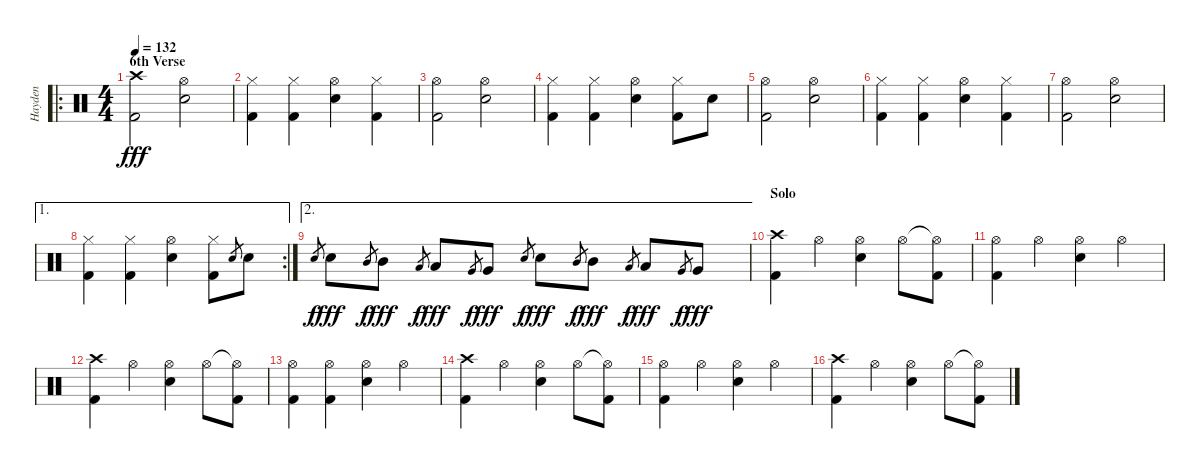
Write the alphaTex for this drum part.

\track ("Hayden" "Hayden") {instrument percussion}
\staff {score}
\articulation defaults
\ro
\ts (4 4)
\section ("" "6th Verse")
\tempo 132
\clef neutral
\ks c
("Crash high (hit)" "Kick (hit) 2").2{dy fff} ("Hi-Hat (open)" "Electric Snare (hit)").2 |
("Kick (hit) 2" "Hi-Hat (closed)").4 ("Kick (hit) 2" "Hi-Hat (closed)").4 ("Hi-Hat (open)" "Electric Snare (hit)").4 ("Hi-Hat (closed)" "Kick (hit) 2").4 |
("Hi-Hat (open)" "Kick (hit) 2").2 ("Hi-Hat (open)" "Electric Snare (hit)").2 |
("Kick (hit) 2" "Hi-Hat (closed)").4 ("Kick (hit) 2" "Hi-Hat (closed)").4 ("Hi-Hat (open)" "Electric Snare (hit)").4 ("Hi-Hat (closed)" "Kick (hit) 2").8 "Electric Snare (hit)".8 |
("Hi-Hat (open)" "Kick (hit) 2").2 ("Hi-Hat (open)" "Electric Snare (hit)").2 |
("Kick (hit) 2" "Hi-Hat (closed)").4 ("Kick (hit) 2" "Hi-Hat (closed)").4 ("Hi-Hat (open)" "Electric Snare (hit)").4 ("Hi-Hat (closed)" "Kick (hit) 2").4 |
("Hi-Hat (open)" "Kick (hit) 2").2 ("Hi-Hat (open)" "Electric Snare (hit)").2 |
\ae 1
\rc 2
("Kick (hit) 2" "Hi-Hat (closed)").4 ("Kick (hit) 2" "Hi-Hat (closed)").4 ("Hi-Hat (open)" "Electric Snare (hit)").4 ("Hi-Hat (closed)" "Kick (hit) 2").8 "Electric Snare (hit)".8{gr} "Electric Snare (hit)".8 |
\ae 2 "Electric Snare (hit)".8{gr dy f} "Electric Snare (hit)".8{dy fff} "Mid Tom (hit)".8{gr dy f} "Mid Tom (hit)".8{dy fff} "Low Tom (hit)".8{gr dy f} "Low Tom (hit)".8{dy fff} "Very Low Tom (hit)".8{gr dy f} "Very Low Tom (hit)".8{dy fff} "Electric Snare (hit)".8{gr dy f} "Electric Snare (hit)".8{dy fff} "Mid Tom (hit)".8{gr dy f} "Mid Tom (hit)".8{dy fff} "Low Tom (hit)".8{gr dy f} "Low Tom (hit)".8{dy fff} "Very Low Tom (hit)".8{gr dy f} "Very Low Tom (hit)".8{dy fff}
|
\section ("" "Solo")
("Crash high (hit)" "Kick (hit) 2").4 "Hi-Hat (open)".4 ("Hi-Hat (open)" "Electric Snare (hit)").4 "Hi-Hat (open)".8 ("Hi-Hat (open)"{t} "Kick (hit) 2").8 |
("Hi-Hat (open)" "Kick (hit) 2").4 "Hi-Hat (open)".4 ("Hi-Hat (open)" "Electric Snare (hit)").4 "Hi-Hat (open)".4 |
("Crash high (hit)" "Kick (hit) 2").4 "Hi-Hat (open)".4 ("Hi-Hat (open)" "Electric Snare (hit)").4 "Hi-Hat (open)".8 ("Hi-Hat (open)"{t} "Kick (hit) 2").8 |
("Hi-Hat (open)" "Kick (hit) 2").4 ("Hi-Hat (open)" "Kick (hit) 2").4 ("Hi-Hat (open)" "Electric Snare (hit)").4 "Hi-Hat (open)".4 |
("Crash high (hit)" "Kick (hit) 2").4 "Hi-Hat (open)".4 ("Hi-Hat (open)" "Electric Snare (hit)").4 "Hi-Hat (open)".8 ("Hi-Hat (open)"{t} "Kick (hit) 2").8 |
("Hi-Hat (open)" "Kick (hit) 2").4 "Hi-Hat (open)".4 ("Hi-Hat (open)" "Electric Snare (hit)").4 "Hi-Hat (open)".4 |
("Crash high (hit)" "Kick (hit) 2").4 "Hi-Hat (open)".4 ("Hi-Hat (open)" "Electric Snare (hit)").4 "Hi-Hat (open)".8 ("Hi-Hat (open)"{t} "Kick (hit) 2").8
